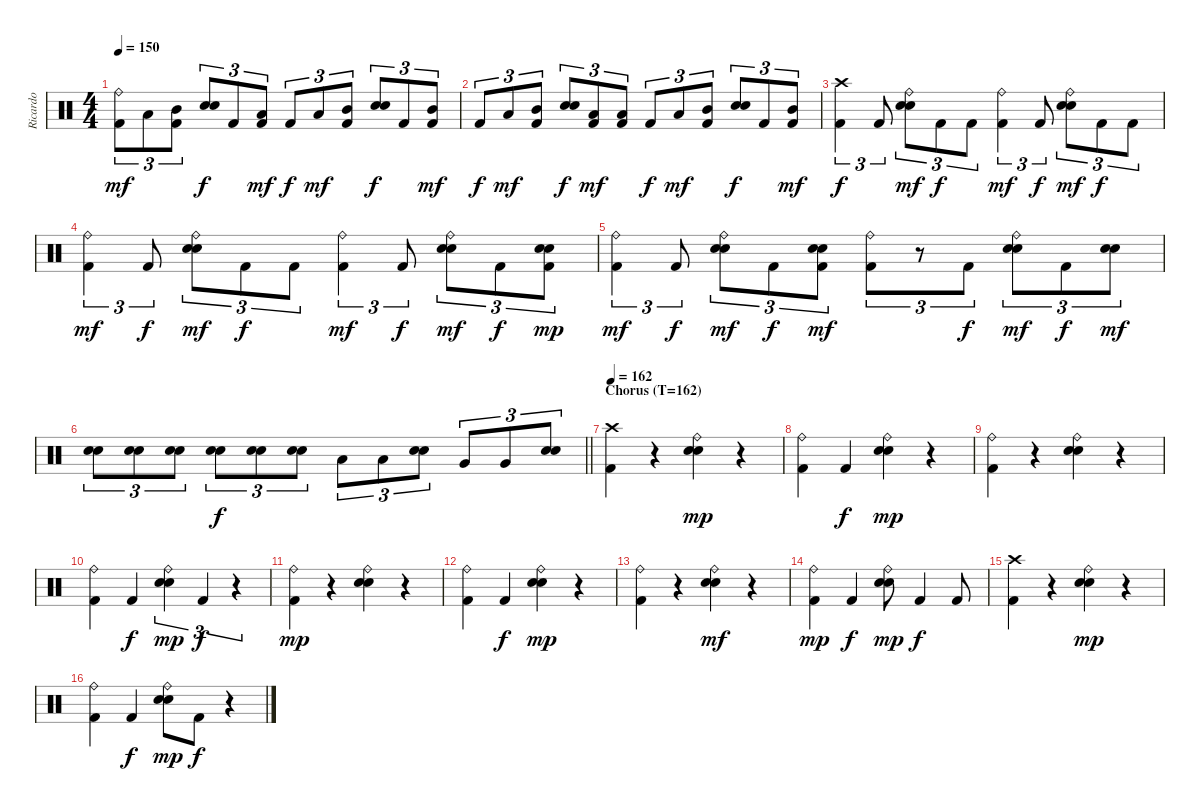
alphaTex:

\track ("Ricardo" "Ricardo") {instrument percussion}
\staff {score}
\articulation defaults
\ts (4 4)
\tempo 150
\clef neutral
\ks c
("Ride (bell)" "Kick (hit) 2").8{tu (3 2) dy mf} "Low Tom (hit)".8{tu (3 2)} ("Mid Tom (hit)" "Kick (hit) 2").8{tu (3 2)} ("Electric Snare (hit)" "Snare (hit) 2").8{tu (3 2) dy f} "Kick (hit) 2".8{tu (3 2)} ("Low Tom (hit)" "Kick (hit) 2").8{tu (3 2) dy mf} "Kick (hit) 2".8{tu (3 2) dy f} "Low Tom (hit)".8{tu (3 2) dy mf} ("Mid Tom (hit)" "Kick (hit) 2").8{tu (3 2)} ("Electric Snare (hit)" "Snare (hit) 2").8{tu (3 2) dy f} "Kick (hit) 2".8{tu (3 2)} ("Mid Tom (hit)" "Kick (hit) 2").8{tu (3 2) dy mf} |
"Kick (hit) 2".8{tu (3 2) dy f} "Low Tom (hit)".8{tu (3 2) dy mf} ("Mid Tom (hit)" "Kick (hit) 2").8{tu (3 2)} ("Electric Snare (hit)" "Snare (hit) 2").8{tu (3 2) dy f} ("Low Tom (hit)" "Kick (hit) 2").8{tu (3 2) dy mf} ("Low Tom (hit)" "Kick (hit) 2").8{tu (3 2)} "Kick (hit) 2".8{tu (3 2) dy f} "Low Tom (hit)".8{tu (3 2) dy mf} ("Mid Tom (hit)" "Kick (hit) 2").8{tu (3 2)} ("Electric Snare (hit)" "Snare (hit) 2").8{tu (3 2) dy f} "Kick (hit) 2".8{tu (3 2)} ("Mid Tom (hit)" "Kick (hit) 2").8{tu (3 2) dy mf} |
("Crash high (hit)" "Kick (hit) 2").4{tu (3 2) dy f} "Kick (hit) 2".8{tu (3 2)} ("Ride (bell)" "Electric Snare (hit)" "Snare (hit) 2").8{tu (3 2) dy mf} "Kick (hit) 2".8{tu (3 2) dy f} "Kick (hit) 2".8{tu (3 2)} ("Ride (bell)" "Kick (hit) 2").4{tu (3 2) dy mf} "Kick (hit) 2".8{tu (3 2) dy f} ("Ride (bell)" "Electric Snare (hit)" "Snare (hit) 2").8{tu (3 2) dy mf} "Kick (hit) 2".8{tu (3 2) dy f} "Kick (hit) 2".8{tu (3 2)} |
("Ride (bell)" "Kick (hit) 2").4{tu (3 2) dy mf} "Kick (hit) 2".8{tu (3 2) dy f} ("Ride (bell)" "Electric Snare (hit)" "Snare (hit) 2").8{tu (3 2) dy mf} "Kick (hit) 2".8{tu (3 2) dy f} "Kick (hit) 2".8{tu (3 2)} ("Ride (bell)" "Kick (hit) 2").4{tu (3 2) dy mf} "Kick (hit) 2".8{tu (3 2) dy f} ("Ride (bell)" "Electric Snare (hit)" "Snare (hit) 2").8{tu (3 2) dy mf} "Kick (hit) 2".8{tu (3 2) dy f} ("Electric Snare (hit)" "Snare (hit) 2" "Kick (hit) 2").8{tu (3 2) dy mp} |
("Ride (bell)" "Kick (hit) 2").4{tu (3 2) dy mf} "Kick (hit) 2".8{tu (3 2) dy f} ("Ride (bell)" "Electric Snare (hit)" "Snare (hit) 2").8{tu (3 2) dy mf} "Kick (hit) 2".8{tu (3 2) dy f} ("Electric Snare (hit)" "Snare (hit) 2" "Kick (hit) 2").8{tu (3 2) dy mf} ("Ride (bell)" "Kick (hit) 2").8{tu (3 2)} r.8{tu (3 2)} "Kick (hit) 2".8{tu (3 2) dy f} ("Ride (bell)" "Electric Snare (hit)" "Snare (hit) 2").8{tu (3 2) dy mf} "Kick (hit) 2".8{tu (3 2) dy f} ("Electric Snare (hit)" "Snare (hit) 2").8{tu (3 2) dy mf} |
\barLineRight lightlight
("Electric Snare (hit)" "Snare (hit) 2").8{tu (3 2)} ("Electric Snare (hit)" "Snare (hit) 2").8{tu (3 2)} ("Electric Snare (hit)" "Snare (hit) 2").8{tu (3 2)} ("Electric Snare (hit)" "Snare (hit) 2").8{tu (3 2) dy f} ("Electric Snare (hit)" "Snare (hit) 2").8{tu (3 2)} ("Electric Snare (hit)" "Snare (hit) 2").8{tu (3 2)} "Low Tom (hit)".8{tu (3 2)} "Low Tom (hit)".8{tu (3 2)} ("Electric Snare (hit)" "Snare (hit) 2").8{tu (3 2)} "Very Low Tom (hit)".8{tu (3 2)} "Very Low Tom (hit)".8{tu (3 2)} ("Electric Snare (hit)" "Snare (hit) 2").8{tu (3 2)} |
\section ("" "Chorus (T=162)")
\tempo 162
("Crash high (hit)" "Kick (hit) 2").4 r.4 ("Ride (bell)" "Electric Snare (hit)" "Snare (hit) 2").4{dy mp} r.4 |
("Ride (bell)" "Kick (hit) 2").4 "Kick (hit) 2".4{dy f} ("Ride (bell)" "Electric Snare (hit)" "Snare (hit) 2").4{dy mp} r.4 |
("Ride (bell)" "Kick (hit) 2").4 r.4 ("Ride (bell)" "Electric Snare (hit)" "Snare (hit) 2").4 r.4 |
("Ride (bell)" "Kick (hit) 2").4 "Kick (hit) 2".4{dy f} ("Ride (bell)" "Electric Snare (hit)" "Snare (hit) 2").4{tu (3 2) dy mp} "Kick (hit) 2".4{tu (3 2) dy f} r.4{tu (3 2)} |
("Ride (bell)" "Kick (hit) 2").4{dy mp} r.4 ("Ride (bell)" "Electric Snare (hit)" "Snare (hit) 2").4 r.4 |
("Ride (bell)" "Kick (hit) 2").4 "Kick (hit) 2".4{dy f} ("Ride (bell)" "Electric Snare (hit)" "Snare (hit) 2").4{dy mp} r.4 |
("Ride (bell)" "Kick (hit) 2").4 r.4 ("Ride (bell)" "Electric Snare (hit)" "Snare (hit) 2").4{dy mf} r.4 |
("Ride (bell)" "Kick (hit) 2").4{dy mp} "Kick (hit) 2".4{dy f} ("Ride (bell)" "Electric Snare (hit)" "Snare (hit) 2").8{dy mp} "Kick (hit) 2".4{dy f} "Kick (hit) 2".8 |
("Crash high (hit)" "Kick (hit) 2").4 r.4 ("Ride (bell)" "Electric Snare (hit)" "Snare (hit) 2").4{dy mp} r.4 |
("Ride (bell)" "Kick (hit) 2").4 "Kick (hit) 2".4{dy f} ("Ride (bell)" "Electric Snare (hit)" "Snare (hit) 2").8{dy mp} "Kick (hit) 2".8{dy f} r.4
